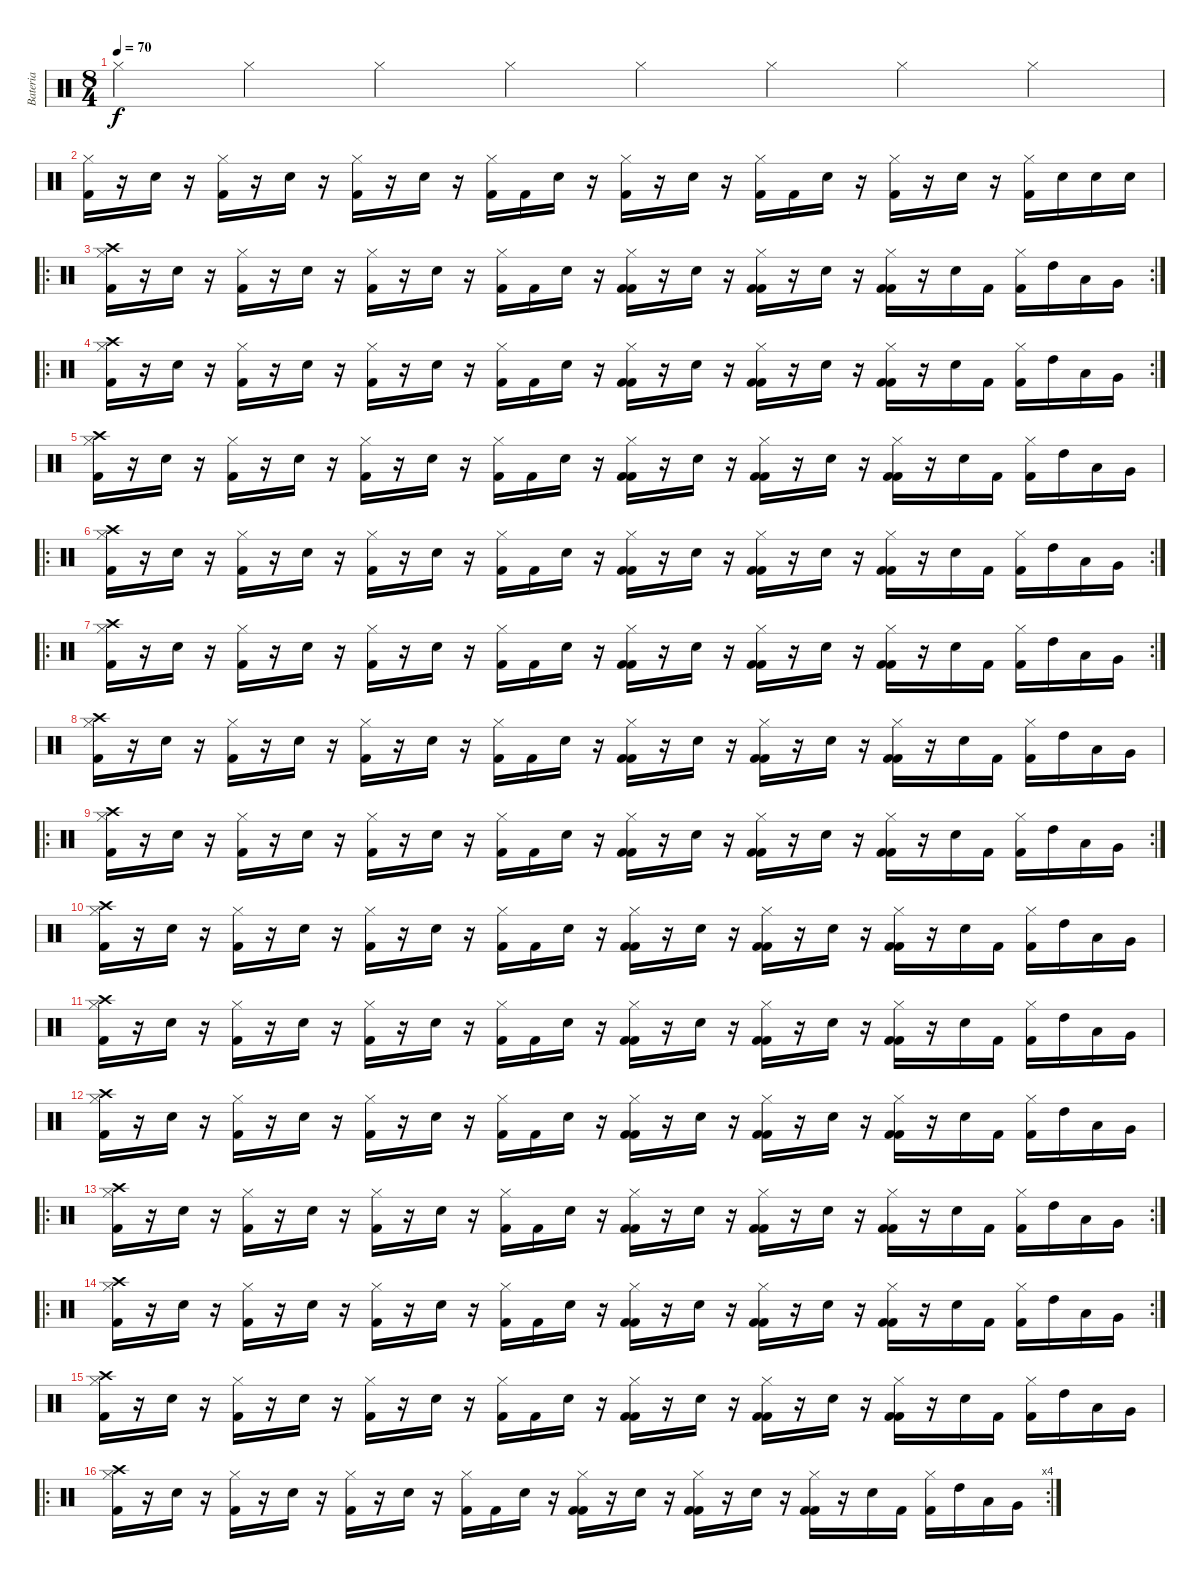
\track ("Bateria" "Bateria") {instrument percussion}
\staff {score}
\articulation defaults
\ts (8 4)
\tempo 70
\clef neutral
\ks c "Hi-Hat (closed)".4{dy f} "Hi-Hat (closed)".4 "Hi-Hat (closed)".4 "Hi-Hat (closed)".4 "Hi-Hat (closed)".4 "Hi-Hat (closed)".4 "Hi-Hat (closed)".4 "Hi-Hat (closed)".4
|
("Hi-Hat (closed)" "Kick (hit) 2").16 r.16 "Snare (hit) 2".16 r.16 ("Hi-Hat (closed)" "Kick (hit) 2").16 r.16 "Snare (hit) 2".16 r.16 ("Hi-Hat (closed)" "Kick (hit) 2").16 r.16 "Snare (hit) 2".16 r.16 ("Hi-Hat (closed)" "Kick (hit) 2").16 "Kick (hit) 2".16 "Snare (hit) 2".16 r.16 ("Hi-Hat (closed)" "Kick (hit) 2").16 r.16 "Snare (hit) 2".16 r.16 ("Hi-Hat (closed)" "Kick (hit) 2").16 "Kick (hit) 2".16 "Snare (hit) 2".16 r.16 ("Hi-Hat (closed)" "Kick (hit) 2").16 r.16 "Snare (hit) 2".16 r.16 ("Hi-Hat (closed)" "Kick (hit) 2").16 "Snare (hit) 2".16 "Snare (hit) 2".16 "Snare (hit) 2".16 |
\ro
\rc 2
("Crash high (hit)" "Hi-Hat (closed)" "Kick (hit) 2").16 r.16 "Snare (hit) 2".16 r.16 ("Hi-Hat (closed)" "Kick (hit) 2").16 r.16 "Snare (hit) 2".16 r.16 ("Hi-Hat (closed)" "Kick (hit) 2").16 r.16 "Snare (hit) 2".16 r.16 ("Hi-Hat (closed)" "Kick (hit) 2").16 "Kick (hit) 2".16 "Snare (hit) 2".16 r.16 ("Hi-Hat (closed)" "Kick (hit) 2" "Kick (hit) 2").16 r.16 "Snare (hit) 2".16 r.16 ("Hi-Hat (closed)" "Kick (hit) 2" "Kick (hit) 2").16 r.16 "Snare (hit) 2".16 r.16 ("Hi-Hat (closed)" "Kick (hit) 2" "Kick (hit) 2").16 r.16 "Snare (hit) 2".16 "Kick (hit) 2".16 ("Hi-Hat (closed)" "Kick (hit) 2").16 "High Tom (hit)".16 "Low Tom (hit)".16 "Very Low Tom (hit)".16 |
\ro
\rc 2
("Crash high (hit)" "Hi-Hat (closed)" "Kick (hit) 2").16 r.16 "Snare (hit) 2".16 r.16 ("Hi-Hat (closed)" "Kick (hit) 2").16 r.16 "Snare (hit) 2".16 r.16 ("Hi-Hat (closed)" "Kick (hit) 2").16 r.16 "Snare (hit) 2".16 r.16 ("Hi-Hat (closed)" "Kick (hit) 2").16 "Kick (hit) 2".16 "Snare (hit) 2".16 r.16 ("Hi-Hat (closed)" "Kick (hit) 2" "Kick (hit) 2").16 r.16 "Snare (hit) 2".16 r.16 ("Hi-Hat (closed)" "Kick (hit) 2" "Kick (hit) 2").16 r.16 "Snare (hit) 2".16 r.16 ("Hi-Hat (closed)" "Kick (hit) 2" "Kick (hit) 2").16 r.16 "Snare (hit) 2".16 "Kick (hit) 2".16 ("Hi-Hat (closed)" "Kick (hit) 2").16 "High Tom (hit)".16 "Low Tom (hit)".16 "Very Low Tom (hit)".16 |
("Crash high (hit)" "Hi-Hat (closed)" "Kick (hit) 2").16 r.16 "Snare (hit) 2".16 r.16 ("Hi-Hat (closed)" "Kick (hit) 2").16 r.16 "Snare (hit) 2".16 r.16 ("Hi-Hat (closed)" "Kick (hit) 2").16 r.16 "Snare (hit) 2".16 r.16 ("Hi-Hat (closed)" "Kick (hit) 2").16 "Kick (hit) 2".16 "Snare (hit) 2".16 r.16 ("Hi-Hat (closed)" "Kick (hit) 2" "Kick (hit) 2").16 r.16 "Snare (hit) 2".16 r.16 ("Hi-Hat (closed)" "Kick (hit) 2" "Kick (hit) 2").16 r.16 "Snare (hit) 2".16 r.16 ("Hi-Hat (closed)" "Kick (hit) 2" "Kick (hit) 2").16 r.16 "Snare (hit) 2".16 "Kick (hit) 2".16 ("Hi-Hat (closed)" "Kick (hit) 2").16 "High Tom (hit)".16 "Low Tom (hit)".16 "Very Low Tom (hit)".16 |
\ro
\rc 2
("Crash high (hit)" "Hi-Hat (closed)" "Kick (hit) 2").16 r.16 "Snare (hit) 2".16 r.16 ("Hi-Hat (closed)" "Kick (hit) 2").16 r.16 "Snare (hit) 2".16 r.16 ("Hi-Hat (closed)" "Kick (hit) 2").16 r.16 "Snare (hit) 2".16 r.16 ("Hi-Hat (closed)" "Kick (hit) 2").16 "Kick (hit) 2".16 "Snare (hit) 2".16 r.16 ("Hi-Hat (closed)" "Kick (hit) 2" "Kick (hit) 2").16 r.16 "Snare (hit) 2".16 r.16 ("Hi-Hat (closed)" "Kick (hit) 2" "Kick (hit) 2").16 r.16 "Snare (hit) 2".16 r.16 ("Hi-Hat (closed)" "Kick (hit) 2" "Kick (hit) 2").16 r.16 "Snare (hit) 2".16 "Kick (hit) 2".16 ("Hi-Hat (closed)" "Kick (hit) 2").16 "High Tom (hit)".16 "Low Tom (hit)".16 "Very Low Tom (hit)".16 |
\ro
\rc 2
("Crash high (hit)" "Hi-Hat (closed)" "Kick (hit) 2").16 r.16 "Snare (hit) 2".16 r.16 ("Hi-Hat (closed)" "Kick (hit) 2").16 r.16 "Snare (hit) 2".16 r.16 ("Hi-Hat (closed)" "Kick (hit) 2").16 r.16 "Snare (hit) 2".16 r.16 ("Hi-Hat (closed)" "Kick (hit) 2").16 "Kick (hit) 2".16 "Snare (hit) 2".16 r.16 ("Hi-Hat (closed)" "Kick (hit) 2" "Kick (hit) 2").16 r.16 "Snare (hit) 2".16 r.16 ("Hi-Hat (closed)" "Kick (hit) 2" "Kick (hit) 2").16 r.16 "Snare (hit) 2".16 r.16 ("Hi-Hat (closed)" "Kick (hit) 2" "Kick (hit) 2").16 r.16 "Snare (hit) 2".16 "Kick (hit) 2".16 ("Hi-Hat (closed)" "Kick (hit) 2").16 "High Tom (hit)".16 "Low Tom (hit)".16 "Very Low Tom (hit)".16 |
("Crash high (hit)" "Hi-Hat (closed)" "Kick (hit) 2").16 r.16 "Snare (hit) 2".16 r.16 ("Hi-Hat (closed)" "Kick (hit) 2").16 r.16 "Snare (hit) 2".16 r.16 ("Hi-Hat (closed)" "Kick (hit) 2").16 r.16 "Snare (hit) 2".16 r.16 ("Hi-Hat (closed)" "Kick (hit) 2").16 "Kick (hit) 2".16 "Snare (hit) 2".16 r.16 ("Hi-Hat (closed)" "Kick (hit) 2" "Kick (hit) 2").16 r.16 "Snare (hit) 2".16 r.16 ("Hi-Hat (closed)" "Kick (hit) 2" "Kick (hit) 2").16 r.16 "Snare (hit) 2".16 r.16 ("Hi-Hat (closed)" "Kick (hit) 2" "Kick (hit) 2").16 r.16 "Snare (hit) 2".16 "Kick (hit) 2".16 ("Hi-Hat (closed)" "Kick (hit) 2").16 "High Tom (hit)".16 "Low Tom (hit)".16 "Very Low Tom (hit)".16 |
\ro
\rc 2
("Crash high (hit)" "Hi-Hat (closed)" "Kick (hit) 2").16 r.16 "Snare (hit) 2".16 r.16 ("Hi-Hat (closed)" "Kick (hit) 2").16 r.16 "Snare (hit) 2".16 r.16 ("Hi-Hat (closed)" "Kick (hit) 2").16 r.16 "Snare (hit) 2".16 r.16 ("Hi-Hat (closed)" "Kick (hit) 2").16 "Kick (hit) 2".16 "Snare (hit) 2".16 r.16 ("Hi-Hat (closed)" "Kick (hit) 2" "Kick (hit) 2").16 r.16 "Snare (hit) 2".16 r.16 ("Hi-Hat (closed)" "Kick (hit) 2" "Kick (hit) 2").16 r.16 "Snare (hit) 2".16 r.16 ("Hi-Hat (closed)" "Kick (hit) 2" "Kick (hit) 2").16 r.16 "Snare (hit) 2".16 "Kick (hit) 2".16 ("Hi-Hat (closed)" "Kick (hit) 2").16 "High Tom (hit)".16 "Low Tom (hit)".16 "Very Low Tom (hit)".16 |
("Crash high (hit)" "Hi-Hat (closed)" "Kick (hit) 2").16 r.16 "Snare (hit) 2".16 r.16 ("Hi-Hat (closed)" "Kick (hit) 2").16 r.16 "Snare (hit) 2".16 r.16 ("Hi-Hat (closed)" "Kick (hit) 2").16 r.16 "Snare (hit) 2".16 r.16 ("Hi-Hat (closed)" "Kick (hit) 2").16 "Kick (hit) 2".16 "Snare (hit) 2".16 r.16 ("Hi-Hat (closed)" "Kick (hit) 2" "Kick (hit) 2").16 r.16 "Snare (hit) 2".16 r.16 ("Hi-Hat (closed)" "Kick (hit) 2" "Kick (hit) 2").16 r.16 "Snare (hit) 2".16 r.16 ("Hi-Hat (closed)" "Kick (hit) 2" "Kick (hit) 2").16 r.16 "Snare (hit) 2".16 "Kick (hit) 2".16 ("Hi-Hat (closed)" "Kick (hit) 2").16 "High Tom (hit)".16 "Low Tom (hit)".16 "Very Low Tom (hit)".16 |
("Crash high (hit)" "Hi-Hat (closed)" "Kick (hit) 2").16 r.16 "Snare (hit) 2".16 r.16 ("Hi-Hat (closed)" "Kick (hit) 2").16 r.16 "Snare (hit) 2".16 r.16 ("Hi-Hat (closed)" "Kick (hit) 2").16 r.16 "Snare (hit) 2".16 r.16 ("Hi-Hat (closed)" "Kick (hit) 2").16 "Kick (hit) 2".16 "Snare (hit) 2".16 r.16 ("Hi-Hat (closed)" "Kick (hit) 2" "Kick (hit) 2").16 r.16 "Snare (hit) 2".16 r.16 ("Hi-Hat (closed)" "Kick (hit) 2" "Kick (hit) 2").16 r.16 "Snare (hit) 2".16 r.16 ("Hi-Hat (closed)" "Kick (hit) 2" "Kick (hit) 2").16 r.16 "Snare (hit) 2".16 "Kick (hit) 2".16 ("Hi-Hat (closed)" "Kick (hit) 2").16 "High Tom (hit)".16 "Low Tom (hit)".16 "Very Low Tom (hit)".16 |
("Crash high (hit)" "Hi-Hat (closed)" "Kick (hit) 2").16 r.16 "Snare (hit) 2".16 r.16 ("Hi-Hat (closed)" "Kick (hit) 2").16 r.16 "Snare (hit) 2".16 r.16 ("Hi-Hat (closed)" "Kick (hit) 2").16 r.16 "Snare (hit) 2".16 r.16 ("Hi-Hat (closed)" "Kick (hit) 2").16 "Kick (hit) 2".16 "Snare (hit) 2".16 r.16 ("Hi-Hat (closed)" "Kick (hit) 2" "Kick (hit) 2").16 r.16 "Snare (hit) 2".16 r.16 ("Hi-Hat (closed)" "Kick (hit) 2" "Kick (hit) 2").16 r.16 "Snare (hit) 2".16 r.16 ("Hi-Hat (closed)" "Kick (hit) 2" "Kick (hit) 2").16 r.16 "Snare (hit) 2".16 "Kick (hit) 2".16 ("Hi-Hat (closed)" "Kick (hit) 2").16 "High Tom (hit)".16 "Low Tom (hit)".16 "Very Low Tom (hit)".16 |
\ro
\rc 2
("Crash high (hit)" "Hi-Hat (closed)" "Kick (hit) 2").16 r.16 "Snare (hit) 2".16 r.16 ("Hi-Hat (closed)" "Kick (hit) 2").16 r.16 "Snare (hit) 2".16 r.16 ("Hi-Hat (closed)" "Kick (hit) 2").16 r.16 "Snare (hit) 2".16 r.16 ("Hi-Hat (closed)" "Kick (hit) 2").16 "Kick (hit) 2".16 "Snare (hit) 2".16 r.16 ("Hi-Hat (closed)" "Kick (hit) 2" "Kick (hit) 2").16 r.16 "Snare (hit) 2".16 r.16 ("Hi-Hat (closed)" "Kick (hit) 2" "Kick (hit) 2").16 r.16 "Snare (hit) 2".16 r.16 ("Hi-Hat (closed)" "Kick (hit) 2" "Kick (hit) 2").16 r.16 "Snare (hit) 2".16 "Kick (hit) 2".16 ("Hi-Hat (closed)" "Kick (hit) 2").16 "High Tom (hit)".16 "Low Tom (hit)".16 "Very Low Tom (hit)".16 |
\ro
\rc 2
("Crash high (hit)" "Hi-Hat (closed)" "Kick (hit) 2").16 r.16 "Snare (hit) 2".16 r.16 ("Hi-Hat (closed)" "Kick (hit) 2").16 r.16 "Snare (hit) 2".16 r.16 ("Hi-Hat (closed)" "Kick (hit) 2").16 r.16 "Snare (hit) 2".16 r.16 ("Hi-Hat (closed)" "Kick (hit) 2").16 "Kick (hit) 2".16 "Snare (hit) 2".16 r.16 ("Hi-Hat (closed)" "Kick (hit) 2" "Kick (hit) 2").16 r.16 "Snare (hit) 2".16 r.16 ("Hi-Hat (closed)" "Kick (hit) 2" "Kick (hit) 2").16 r.16 "Snare (hit) 2".16 r.16 ("Hi-Hat (closed)" "Kick (hit) 2" "Kick (hit) 2").16 r.16 "Snare (hit) 2".16 "Kick (hit) 2".16 ("Hi-Hat (closed)" "Kick (hit) 2").16 "High Tom (hit)".16 "Low Tom (hit)".16 "Very Low Tom (hit)".16 |
("Crash high (hit)" "Hi-Hat (closed)" "Kick (hit) 2").16 r.16 "Snare (hit) 2".16 r.16 ("Hi-Hat (closed)" "Kick (hit) 2").16 r.16 "Snare (hit) 2".16 r.16 ("Hi-Hat (closed)" "Kick (hit) 2").16 r.16 "Snare (hit) 2".16 r.16 ("Hi-Hat (closed)" "Kick (hit) 2").16 "Kick (hit) 2".16 "Snare (hit) 2".16 r.16 ("Hi-Hat (closed)" "Kick (hit) 2" "Kick (hit) 2").16 r.16 "Snare (hit) 2".16 r.16 ("Hi-Hat (closed)" "Kick (hit) 2" "Kick (hit) 2").16 r.16 "Snare (hit) 2".16 r.16 ("Hi-Hat (closed)" "Kick (hit) 2" "Kick (hit) 2").16 r.16 "Snare (hit) 2".16 "Kick (hit) 2".16 ("Hi-Hat (closed)" "Kick (hit) 2").16 "High Tom (hit)".16 "Low Tom (hit)".16 "Very Low Tom (hit)".16 |
\ro
\rc 4
("Crash high (hit)" "Hi-Hat (closed)" "Kick (hit) 2").16 r.16 "Snare (hit) 2".16 r.16 ("Hi-Hat (closed)" "Kick (hit) 2").16 r.16 "Snare (hit) 2".16 r.16 ("Hi-Hat (closed)" "Kick (hit) 2").16 r.16 "Snare (hit) 2".16 r.16 ("Hi-Hat (closed)" "Kick (hit) 2").16 "Kick (hit) 2".16 "Snare (hit) 2".16 r.16 ("Hi-Hat (closed)" "Kick (hit) 2" "Kick (hit) 2").16 r.16 "Snare (hit) 2".16 r.16 ("Hi-Hat (closed)" "Kick (hit) 2" "Kick (hit) 2").16 r.16 "Snare (hit) 2".16 r.16 ("Hi-Hat (closed)" "Kick (hit) 2" "Kick (hit) 2").16 r.16 "Snare (hit) 2".16 "Kick (hit) 2".16 ("Hi-Hat (closed)" "Kick (hit) 2").16 "High Tom (hit)".16 "Low Tom (hit)".16 "Very Low Tom (hit)".16
